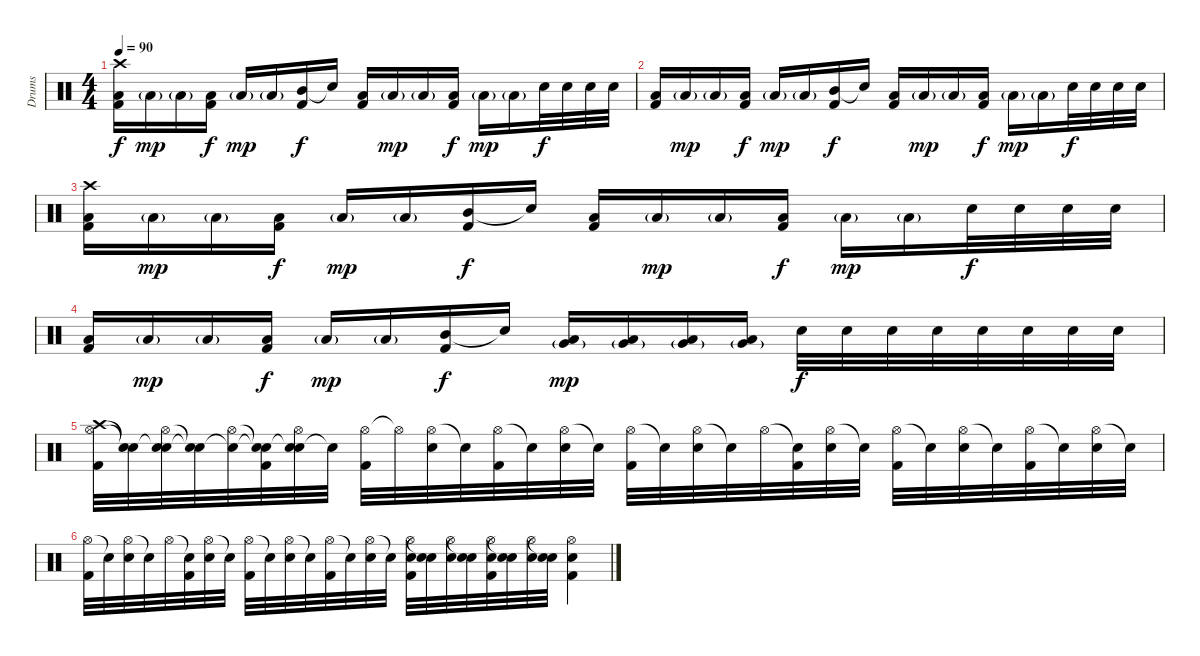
\track ("Drums" "Drums") {instrument percussion}
\staff {score}
\articulation defaults
\ts (4 4)
\tempo 90
\clef neutral
\ks c
("Crash high (hit)" "Low Tom (hit)" "Kick (hit) 2").16{dy f} "Low Tom (hit)"{g}.16{dy mp} "Low Tom (hit)"{g}.16 ("Low Tom (hit)" "Kick (hit) 2").16{dy f} "Low Tom (hit)"{g}.16{dy mp} "Low Tom (hit)"{g}.16 ("Mid Tom (hit)" "Kick (hit) 2").16{dy f} "Snare (hit)"{t}.16 ("Low Tom (hit)" "Kick (hit) 2").16 "Low Tom (hit)"{g}.16{dy mp} "Low Tom (hit)"{g}.16 ("Low Tom (hit)" "Kick (hit) 2").16{dy f} "Low Tom (hit)"{g}.16{dy mp} "Low Tom (hit)"{g}.16 "Electric Snare (hit)".32{dy f} "Electric Snare (hit)".32 "Electric Snare (hit)".32 "Electric Snare (hit)".32 |
("Low Tom (hit)" "Kick (hit) 2").16 "Low Tom (hit)"{g}.16{dy mp} "Low Tom (hit)"{g}.16 ("Low Tom (hit)" "Kick (hit) 2").16{dy f} "Low Tom (hit)"{g}.16{dy mp} "Low Tom (hit)"{g}.16 ("Mid Tom (hit)" "Kick (hit) 2").16{dy f} "Snare (hit)"{t}.16 ("Low Tom (hit)" "Kick (hit) 2").16 "Low Tom (hit)"{g}.16{dy mp} "Low Tom (hit)"{g}.16 ("Low Tom (hit)" "Kick (hit) 2").16{dy f} "Low Tom (hit)"{g}.16{dy mp} "Low Tom (hit)"{g}.16 "Electric Snare (hit)".32{dy f} "Electric Snare (hit)".32 "Electric Snare (hit)".32 "Electric Snare (hit)".32 |
("Crash high (hit)" "Low Tom (hit)" "Kick (hit) 2").16 "Low Tom (hit)"{g}.16{dy mp} "Low Tom (hit)"{g}.16 ("Low Tom (hit)" "Kick (hit) 2").16{dy f} "Low Tom (hit)"{g}.16{dy mp} "Low Tom (hit)"{g}.16 ("Mid Tom (hit)" "Kick (hit) 2").16{dy f} "Snare (hit)"{t}.16 ("Low Tom (hit)" "Kick (hit) 2").16 "Low Tom (hit)"{g}.16{dy mp} "Low Tom (hit)"{g}.16 ("Low Tom (hit)" "Kick (hit) 2").16{dy f} "Low Tom (hit)"{g}.16{dy mp} "Low Tom (hit)"{g}.16 "Electric Snare (hit)".32{dy f} "Electric Snare (hit)".32 "Electric Snare (hit)".32 "Electric Snare (hit)".32 |
("Low Tom (hit)" "Kick (hit) 2").16 "Low Tom (hit)"{g}.16{dy mp} "Low Tom (hit)"{g}.16 ("Low Tom (hit)" "Kick (hit) 2").16{dy f} "Low Tom (hit)"{g}.16{dy mp} "Low Tom (hit)"{g}.16 ("Mid Tom (hit)" "Kick (hit) 2").16{dy f} "Snare (hit)"{t}.16 ("Very Low Tom (hit)"{g} "Low Tom (hit)").16{dy mp} ("Very Low Tom (hit)"{g} "Low Tom (hit)").16 ("Very Low Tom (hit)"{g} "Low Tom (hit)").16 ("Very Low Tom (hit)"{g} "Low Tom (hit)").16 "Electric Snare (hit)".32{dy f} "Electric Snare (hit)".32 "Electric Snare (hit)".32 "Electric Snare (hit)".32 "Electric Snare (hit)".32 "Electric Snare (hit)".32 "Electric Snare (hit)".32 "Electric Snare (hit)".32 |
("Crash high (hit)" "Hi-Hat (open)" "Kick (hit) 2").32 ("Snare (hit)"{t} "Snare (hit)"{t}).32 ("Snare (hit)"{t} "Hi-Hat (open)" "Electric Snare (hit)").32 ("Snare (hit)"{t} "Snare (hit)"{t}).32 ("Snare (hit)"{t} "Hi-Hat (open)").32 ("Snare (hit)"{t} "Snare (hit)"{t} "Kick (hit) 2").32 ("Snare (hit)"{t} "Hi-Hat (open)" "Electric Snare (hit)").32 "Snare (hit)"{t}.32 ("Hi-Hat (open)" "Kick (hit) 2").32 "Hi-Hat (open)"{t}.32 ("Hi-Hat (open)" "Electric Snare (hit)").32 "Snare (hit)"{t}.32 ("Hi-Hat (open)" "Kick (hit) 2").32 "Snare (hit)"{t}.32 ("Hi-Hat (open)" "Electric Snare (hit)").32 "Snare (hit)"{t}.32 ("Hi-Hat (open)" "Kick (hit) 2").32 "Snare (hit)"{t}.32 ("Hi-Hat (open)" "Electric Snare (hit)").32 "Snare (hit)"{t}.32 "Hi-Hat (open)".32 ("Snare (hit)"{t} "Kick (hit) 2").32 ("Hi-Hat (open)" "Electric Snare (hit)").32 "Snare (hit)"{t}.32 ("Hi-Hat (open)" "Kick (hit) 2").32 "Snare (hit)"{t}.32 ("Hi-Hat (open)" "Electric Snare (hit)").32 "Snare (hit)"{t}.32 ("Hi-Hat (open)" "Kick (hit) 2").32 "Snare (hit)"{t}.32 ("Hi-Hat (open)" "Electric Snare (hit)").32 "Snare (hit)"{t}.32 |
("Hi-Hat (open)" "Kick (hit) 2").32 "Snare (hit)"{t}.32 ("Hi-Hat (open)" "Electric Snare (hit)").32 "Snare (hit)"{t}.32 "Hi-Hat (open)".32 ("Snare (hit)"{t} "Kick (hit) 2").32 ("Hi-Hat (open)" "Electric Snare (hit)").32 "Snare (hit)"{t}.32 ("Hi-Hat (open)" "Kick (hit) 2").32 "Snare (hit)"{t}.32 ("Hi-Hat (open)" "Electric Snare (hit)").32 "Snare (hit)"{t}.32 ("Hi-Hat (open)" "Kick (hit) 2").32 "Snare (hit)"{t}.32 ("Hi-Hat (open)" "Electric Snare (hit)").32 "Snare (hit)"{t}.32 ("Hi-Hat (open)" "Electric Snare (hit)" "Kick (hit) 2").32 ("Snare (hit)"{t} "Electric Snare (hit)").32 ("Hi-Hat (open)" "Electric Snare (hit)").32 ("Snare (hit)"{t} "Electric Snare (hit)").32 ("Hi-Hat (open)" "Electric Snare (hit)" "Kick (hit) 2").32 ("Snare (hit)"{t} "Electric Snare (hit)").32 ("Hi-Hat (open)" "Electric Snare (hit)").32 ("Snare (hit)"{t} "Electric Snare (hit)").32 ("Hi-Hat (open)" "Electric Snare (hit)" "Kick (hit) 2").4
